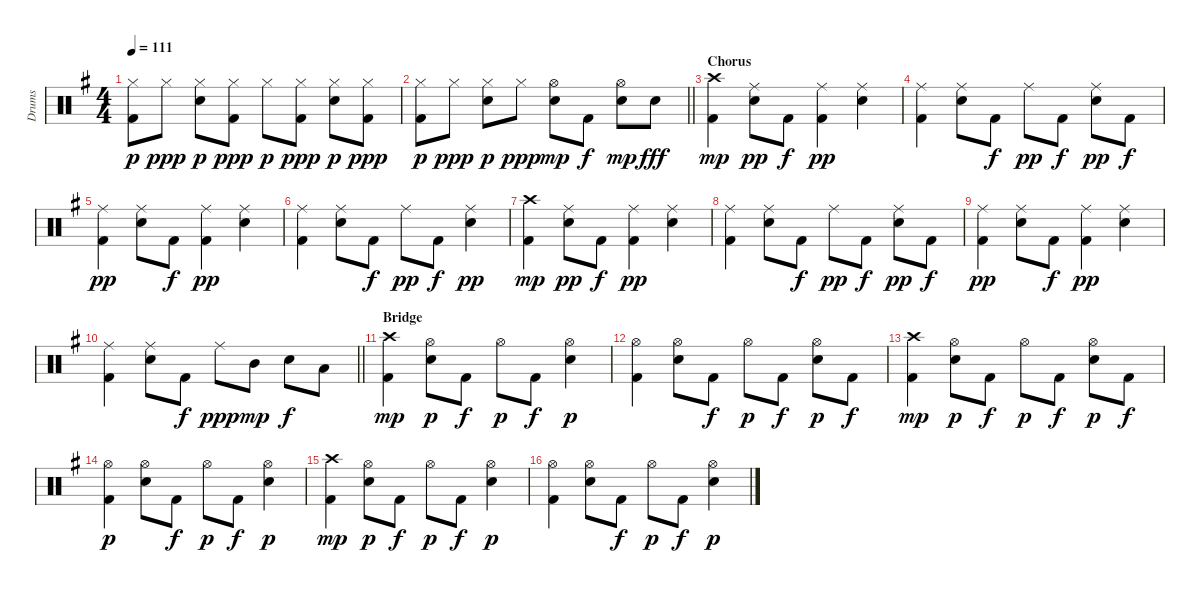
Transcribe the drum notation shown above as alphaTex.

\track ("Drums" "Drums") {instrument percussion}
\staff {score}
\articulation defaults
\ts (4 4)
\tempo 111
\clef neutral
\ks g
("Hi-Hat (closed)" "Kick (hit) 2").8{dy p} "Hi-Hat (closed)".8{dy ppp} ("Hi-Hat (closed)" "Electric Snare (hit)").8{dy p} ("Kick (hit) 2" "Hi-Hat (closed)").8{dy ppp} "Hi-Hat (closed)".8{dy p} ("Kick (hit) 2" "Hi-Hat (closed)").8{dy ppp} ("Hi-Hat (closed)" "Electric Snare (hit)").8{dy p} ("Kick (hit) 2" "Hi-Hat (closed)").8{dy ppp} |
\barLineRight lightlight
("Hi-Hat (closed)" "Kick (hit) 2").8{dy p} "Hi-Hat (closed)".8{dy ppp} ("Hi-Hat (closed)" "Electric Snare (hit)").8{dy p} "Hi-Hat (closed)".8{dy ppp} ("Hi-Hat (open)" "Electric Snare (hit)").8{dy mp} "Kick (hit) 2".8{dy f} ("Hi-Hat (open)" "Electric Snare (hit)").8{dy mp} "Electric Snare (hit)".8{dy fff} |
\section ("" "Chorus")
("Crash high (hit)" "Kick (hit) 2").4{dy mp} ("Electric Snare (hit)" "Ride (middle)").8{dy pp} "Kick (hit) 2".8{dy f} ("Kick (hit) 2" "Ride (middle)").4{dy pp} ("Electric Snare (hit)" "Ride (middle)").4 |
("Kick (hit) 2" "Ride (middle)").4 ("Electric Snare (hit)" "Ride (middle)").8 "Kick (hit) 2".8{dy f} "Ride (middle)".8{dy pp} "Kick (hit) 2".8{dy f} ("Electric Snare (hit)" "Ride (middle)").8{dy pp} "Kick (hit) 2".8{dy f} |
("Kick (hit) 2" "Ride (middle)").4{dy pp} ("Electric Snare (hit)" "Ride (middle)").8 "Kick (hit) 2".8{dy f} ("Kick (hit) 2" "Ride (middle)").4{dy pp} ("Electric Snare (hit)" "Ride (middle)").4 |
("Kick (hit) 2" "Ride (middle)").4 ("Electric Snare (hit)" "Ride (middle)").8 "Kick (hit) 2".8{dy f} "Ride (middle)".8{dy pp} "Kick (hit) 2".8{dy f} ("Electric Snare (hit)" "Ride (middle)").4{dy pp} |
("Crash high (hit)" "Kick (hit) 2").4{dy mp} ("Electric Snare (hit)" "Ride (middle)").8{dy pp} "Kick (hit) 2".8{dy f} ("Kick (hit) 2" "Ride (middle)").4{dy pp} ("Electric Snare (hit)" "Ride (middle)").4 |
("Kick (hit) 2" "Ride (middle)").4 ("Electric Snare (hit)" "Ride (middle)").8 "Kick (hit) 2".8{dy f} "Ride (middle)".8{dy pp} "Kick (hit) 2".8{dy f} ("Electric Snare (hit)" "Ride (middle)").8{dy pp} "Kick (hit) 2".8{dy f} |
("Kick (hit) 2" "Ride (middle)").4{dy pp} ("Electric Snare (hit)" "Ride (middle)").8 "Kick (hit) 2".8{dy f} ("Kick (hit) 2" "Ride (middle)").4{dy pp} ("Electric Snare (hit)" "Ride (middle)").4 |
\barLineRight lightlight
("Kick (hit) 2" "Ride (middle)").4 ("Electric Snare (hit)" "Ride (middle)").8 "Kick (hit) 2".8{dy f} "Ride (middle)".8{dy ppp} "Mid Tom (hit)".8{dy mp} "Electric Snare (hit)".8{dy f} "Low Tom (hit)".8 |
\section ("" "Bridge")
("Kick (hit) 2" "Crash high (hit)").4{dy mp} ("Electric Snare (hit)" "Hi-Hat (open)").8{dy p} "Kick (hit) 2".8{dy f} "Hi-Hat (open)".8{dy p} "Kick (hit) 2".8{dy f} ("Electric Snare (hit)" "Hi-Hat (open)").4{dy p} |
("Kick (hit) 2" "Hi-Hat (open)").4 ("Electric Snare (hit)" "Hi-Hat (open)").8 "Kick (hit) 2".8{dy f} "Hi-Hat (open)".8{dy p} "Kick (hit) 2".8{dy f} ("Electric Snare (hit)" "Hi-Hat (open)").8{dy p} "Kick (hit) 2".8{dy f} |
("Kick (hit) 2" "Crash high (hit)").4{dy mp} ("Electric Snare (hit)" "Hi-Hat (open)").8{dy p} "Kick (hit) 2".8{dy f} "Hi-Hat (open)".8{dy p} "Kick (hit) 2".8{dy f} ("Electric Snare (hit)" "Hi-Hat (open)").8{dy p} "Kick (hit) 2".8{dy f} |
("Kick (hit) 2" "Hi-Hat (open)").4{dy p} ("Electric Snare (hit)" "Hi-Hat (open)").8 "Kick (hit) 2".8{dy f} "Hi-Hat (open)".8{dy p} "Kick (hit) 2".8{dy f} ("Electric Snare (hit)" "Hi-Hat (open)").4{dy p} |
("Kick (hit) 2" "Crash high (hit)").4{dy mp} ("Electric Snare (hit)" "Hi-Hat (open)").8{dy p} "Kick (hit) 2".8{dy f} "Hi-Hat (open)".8{dy p} "Kick (hit) 2".8{dy f} ("Electric Snare (hit)" "Hi-Hat (open)").4{dy p} |
("Kick (hit) 2" "Hi-Hat (open)").4 ("Electric Snare (hit)" "Hi-Hat (open)").8 "Kick (hit) 2".8{dy f} "Hi-Hat (open)".8{dy p} "Kick (hit) 2".8{dy f} ("Electric Snare (hit)" "Hi-Hat (open)").4{dy p}
